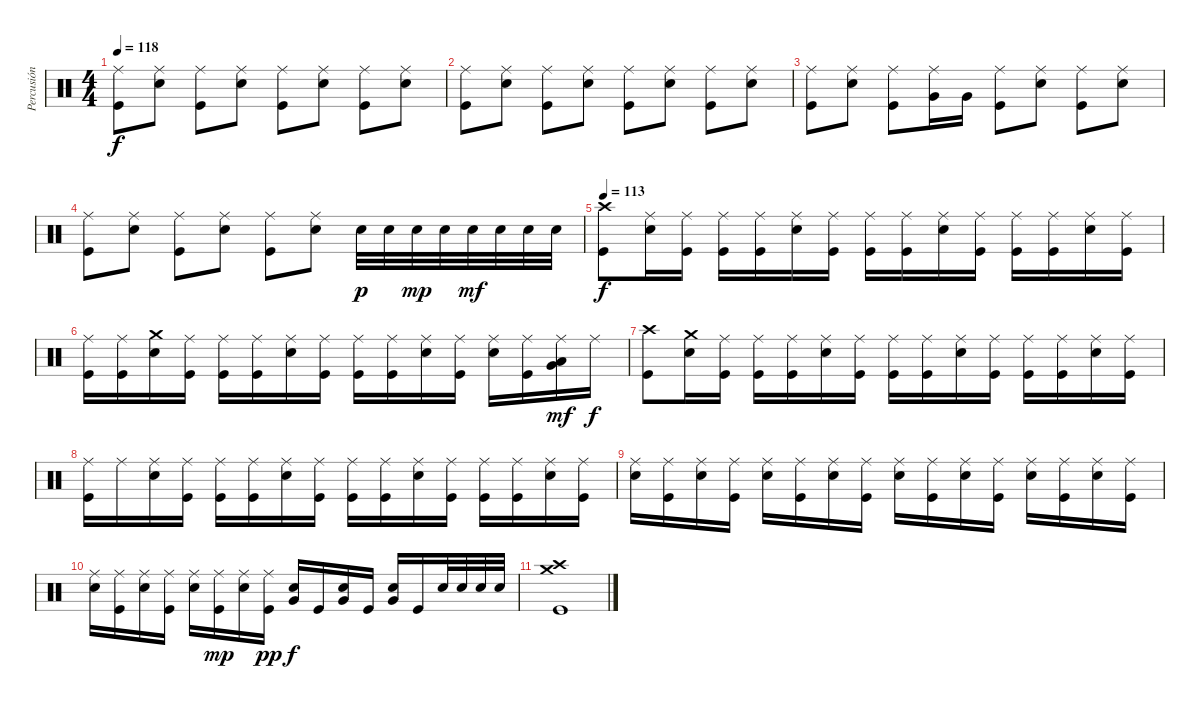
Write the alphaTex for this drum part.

\track ("Percusión" "Percusión") {instrument percussion}
\staff {score}
\articulation defaults
\ts (4 4)
\tempo 118
\clef neutral
\ks c
("Ride (middle)" "Kick (hit)").8{dy f} ("Ride (middle)" "Snare (hit) 2").8 ("Ride (middle)" "Kick (hit)").8 ("Ride (middle)" "Snare (hit) 2").8 ("Ride (middle)" "Kick (hit)").8 ("Ride (middle)" "Snare (hit) 2").8 ("Ride (middle)" "Kick (hit)").8 ("Ride (middle)" "Snare (hit) 2").8 |
("Ride (middle)" "Kick (hit)").8 ("Ride (middle)" "Snare (hit) 2").8 ("Ride (middle)" "Kick (hit)").8 ("Ride (middle)" "Snare (hit) 2").8 ("Ride (middle)" "Kick (hit)").8 ("Ride (middle)" "Snare (hit) 2").8 ("Ride (middle)" "Kick (hit)").8 ("Ride (middle)" "Snare (hit) 2").8 |
("Ride (middle)" "Kick (hit)").8 ("Ride (middle)" "Snare (hit) 2").8 ("Ride (middle)" "Kick (hit)").8 ("Ride (middle)" "Very Low Tom (hit)").16 "Very Low Tom (hit)".16 ("Ride (middle)" "Kick (hit)").8 ("Ride (middle)" "Snare (hit) 2").8 ("Ride (middle)" "Kick (hit)").8 ("Ride (middle)" "Snare (hit) 2").8 |
("Ride (middle)" "Kick (hit)").8 ("Ride (middle)" "Snare (hit) 2").8 ("Ride (middle)" "Kick (hit)").8 ("Ride (middle)" "Snare (hit) 2").8 ("Ride (middle)" "Kick (hit)").8 ("Ride (middle)" "Snare (hit) 2").8 "Snare (hit) 2".32{dy p} "Snare (hit) 2".32 "Snare (hit) 2".32{dy mp} "Snare (hit) 2".32 "Snare (hit) 2".32{dy mf} "Snare (hit) 2".32 "Snare (hit) 2".32 "Snare (hit) 2".32 |
\tempo 113
("Crash high (hit)" "Kick (hit)").8{dy f} ("Ride (middle)" "Snare (hit) 2").16 ("Ride (middle)" "Kick (hit)").16 ("Ride (middle)" "Kick (hit)").16 ("Ride (middle)" "Kick (hit)").16 ("Ride (middle)" "Snare (hit) 2").16 ("Ride (middle)" "Kick (hit)").16 ("Ride (middle)" "Kick (hit)").16 ("Ride (middle)" "Kick (hit)").16 ("Ride (middle)" "Snare (hit) 2").16 ("Ride (middle)" "Kick (hit)").16 ("Ride (middle)" "Kick (hit)").16 ("Ride (middle)" "Kick (hit)").16 ("Ride (middle)" "Snare (hit) 2").16 ("Ride (middle)" "Kick (hit)").16 |
("Ride (middle)" "Kick (hit)").16 ("Ride (middle)" "Kick (hit)").16 ("Crash medium (hit)" "Snare (hit) 2").16 ("Ride (middle)" "Kick (hit)").16 ("Ride (middle)" "Kick (hit)").16 ("Ride (middle)" "Kick (hit)").16 ("Ride (middle)" "Snare (hit) 2").16 ("Ride (middle)" "Kick (hit)").16 ("Ride (middle)" "Kick (hit)").16 ("Ride (middle)" "Kick (hit)").16 ("Ride (middle)" "Snare (hit) 2").16 ("Ride (middle)" "Kick (hit)").16 ("Ride (middle)" "Snare (hit) 2").16 ("Ride (middle)" "Kick (hit)").16 ("Ride (middle)" "Low Tom (hit)" "Very Low Tom (hit)").16{dy mf} "Ride (middle)".16{dy f} |
("Crash high (hit)" "Kick (hit)").8 ("Crash medium (hit)" "Snare (hit) 2").16 ("Ride (middle)" "Kick (hit)").16 ("Ride (middle)" "Kick (hit)").16 ("Ride (middle)" "Kick (hit)").16 ("Ride (middle)" "Snare (hit) 2").16 ("Ride (middle)" "Kick (hit)").16 ("Ride (middle)" "Kick (hit)").16 ("Ride (middle)" "Kick (hit)").16 ("Ride (middle)" "Snare (hit) 2").16 ("Ride (middle)" "Kick (hit)").16 ("Ride (middle)" "Kick (hit)").16 ("Ride (middle)" "Kick (hit)").16 ("Ride (middle)" "Snare (hit) 2").16 ("Ride (middle)" "Kick (hit)").16 |
("Ride (middle)" "Kick (hit)").16 "Ride (middle)".16 ("Ride (middle)" "Snare (hit) 2").16 ("Ride (middle)" "Kick (hit)").16 ("Ride (middle)" "Kick (hit)").16 ("Ride (middle)" "Kick (hit)").16 ("Ride (middle)" "Snare (hit) 2").16 ("Ride (middle)" "Kick (hit)").16 ("Ride (middle)" "Kick (hit)").16 ("Ride (middle)" "Kick (hit)").16 ("Ride (middle)" "Snare (hit) 2").16 ("Ride (middle)" "Kick (hit)").16 ("Ride (middle)" "Kick (hit)").16 ("Ride (middle)" "Kick (hit)").16 ("Ride (middle)" "Snare (hit) 2").16 ("Ride (middle)" "Kick (hit)").16 |
("Ride (middle)" "Snare (hit) 2").16 ("Ride (middle)" "Kick (hit)").16 ("Ride (middle)" "Snare (hit) 2").16 ("Ride (middle)" "Kick (hit)").16 ("Ride (middle)" "Snare (hit) 2").16 ("Ride (middle)" "Kick (hit)").16 ("Ride (middle)" "Snare (hit) 2").16 ("Ride (middle)" "Kick (hit)").16 ("Ride (middle)" "Snare (hit) 2").16 ("Ride (middle)" "Kick (hit)").16 ("Ride (middle)" "Snare (hit) 2").16 ("Ride (middle)" "Kick (hit)").16 ("Ride (middle)" "Snare (hit) 2").16 ("Ride (middle)" "Kick (hit)").16 ("Ride (middle)" "Snare (hit) 2").16 ("Ride (middle)" "Kick (hit)").16 |
("Ride (middle)" "Snare (hit) 2").16 ("Ride (middle)" "Kick (hit)").16 ("Ride (middle)" "Snare (hit) 2").16 ("Ride (middle)" "Kick (hit)").16 ("Ride (middle)" "Snare (hit) 2").16 ("Ride (middle)" "Kick (hit)").16{dy mp} ("Ride (middle)" "Snare (hit) 2").16 ("Ride (middle)" "Kick (hit)").16{dy pp} ("Very Low Tom (hit)" "Snare (hit) 2").16{dy f} "Kick (hit)".16 ("Very Low Tom (hit)" "Snare (hit) 2").16 "Kick (hit)".16 ("Very Low Tom (hit)" "Snare (hit) 2").16 "Kick (hit)".16 "Snare (hit) 2".32 "Snare (hit) 2".32 "Snare (hit) 2".32 "Snare (hit) 2".32 |
("Crash high (hit)" "Crash medium (hit)" "Kick (hit)").1
